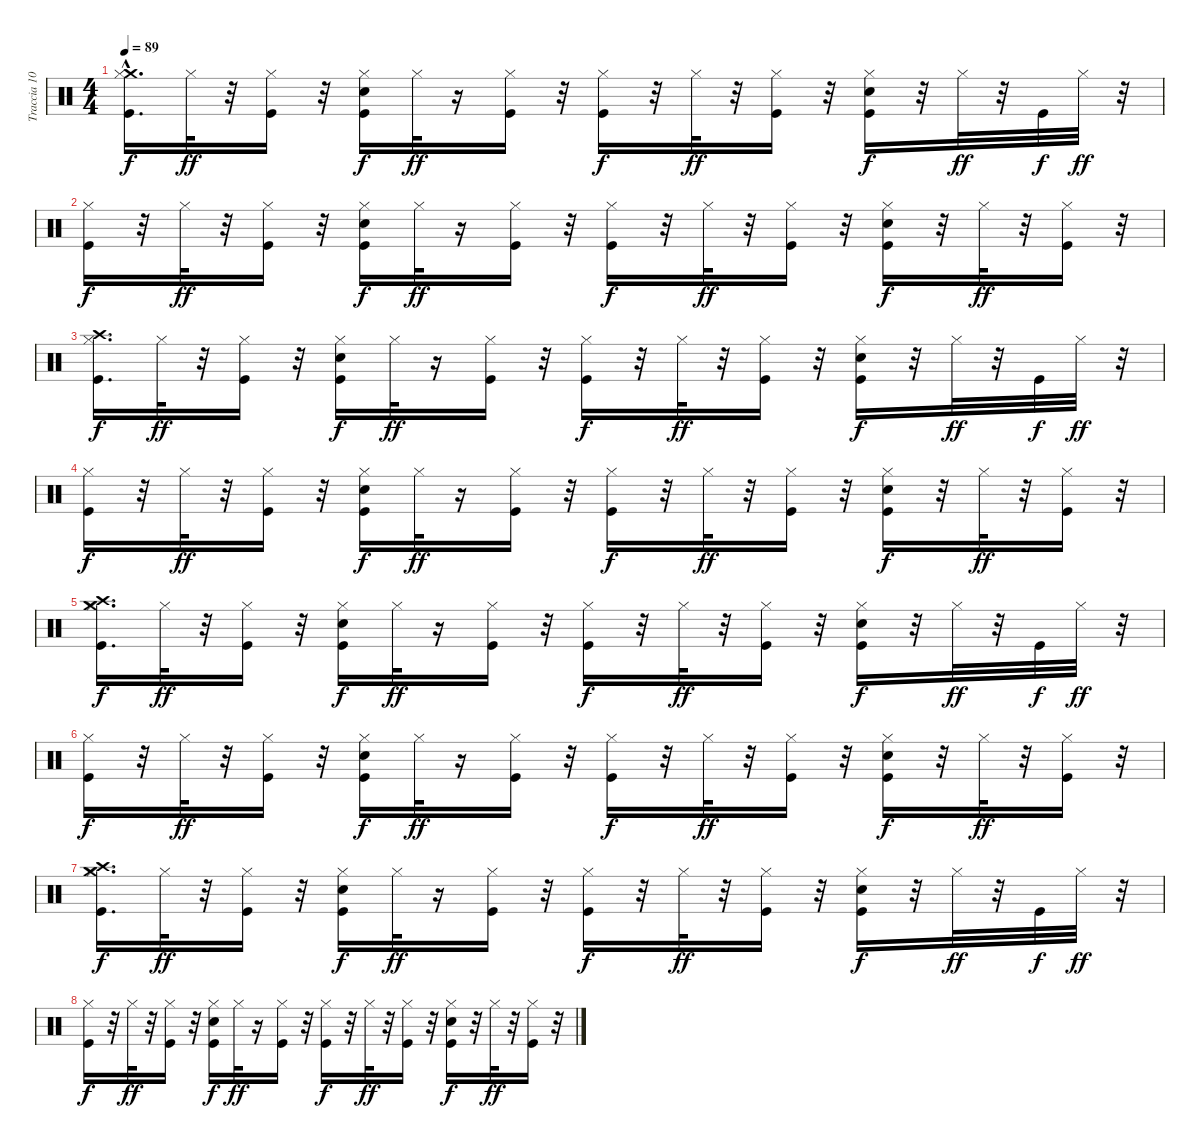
\track ("Traccia 10" "Traccia 10") {instrument percussion}
\staff {score}
\articulation defaults
\ts (4 4)
\tempo 89
\clef neutral
\ks c
("Kick (hit)" "Crash medium (hit)"{hac} "Hi-Hat (closed)").16{d dy f} "Hi-Hat (closed)".32{dy ff} r.32 ("Kick (hit)" "Hi-Hat (closed)").16 r.32 ("Kick (hit)" "Electric Snare (hit)" "Hi-Hat (closed)").16{dy f} "Hi-Hat (closed)".32{dy ff} r.16 ("Kick (hit)" "Hi-Hat (closed)").16 r.32 ("Kick (hit)" "Hi-Hat (closed)").16{dy f} r.32 "Hi-Hat (closed)".32{dy ff} r.32 ("Kick (hit)" "Hi-Hat (closed)").16 r.32 ("Kick (hit)" "Electric Snare (hit)" "Hi-Hat (closed)").16{dy f} r.32 "Hi-Hat (closed)".32{dy ff} r.32 "Kick (hit)".32{dy f} "Hi-Hat (closed)".32{dy ff} r.32 |
("Kick (hit)" "Hi-Hat (closed)").16{dy f} r.32 "Hi-Hat (closed)".32{dy ff} r.32 ("Kick (hit)" "Hi-Hat (closed)").16 r.32 ("Kick (hit)" "Electric Snare (hit)" "Hi-Hat (closed)").16{dy f} "Hi-Hat (closed)".32{dy ff} r.16 ("Kick (hit)" "Hi-Hat (closed)").16 r.32 ("Kick (hit)" "Hi-Hat (closed)").16{dy f} r.32 "Hi-Hat (closed)".32{dy ff} r.32 ("Kick (hit)" "Hi-Hat (closed)").16 r.32 ("Kick (hit)" "Electric Snare (hit)" "Hi-Hat (closed)").16{dy f} r.32 "Hi-Hat (closed)".32{dy ff} r.32 ("Kick (hit)" "Hi-Hat (closed)").16 r.32 |
("Crash high (hit)" "Kick (hit)" "Hi-Hat (closed)").16{d dy f} "Hi-Hat (closed)".32{dy ff} r.32 ("Kick (hit)" "Hi-Hat (closed)").16 r.32 ("Kick (hit)" "Electric Snare (hit)" "Hi-Hat (closed)").16{dy f} "Hi-Hat (closed)".32{dy ff} r.16 ("Kick (hit)" "Hi-Hat (closed)").16 r.32 ("Kick (hit)" "Hi-Hat (closed)").16{dy f} r.32 "Hi-Hat (closed)".32{dy ff} r.32 ("Kick (hit)" "Hi-Hat (closed)").16 r.32 ("Kick (hit)" "Electric Snare (hit)" "Hi-Hat (closed)").16{dy f} r.32 "Hi-Hat (closed)".32{dy ff} r.32 "Kick (hit)".32{dy f} "Hi-Hat (closed)".32{dy ff} r.32 |
("Kick (hit)" "Hi-Hat (closed)").16{dy f} r.32 "Hi-Hat (closed)".32{dy ff} r.32 ("Kick (hit)" "Hi-Hat (closed)").16 r.32 ("Kick (hit)" "Electric Snare (hit)" "Hi-Hat (closed)").16{dy f} "Hi-Hat (closed)".32{dy ff} r.16 ("Kick (hit)" "Hi-Hat (closed)").16 r.32 ("Kick (hit)" "Hi-Hat (closed)").16{dy f} r.32 "Hi-Hat (closed)".32{dy ff} r.32 ("Kick (hit)" "Hi-Hat (closed)").16 r.32 ("Kick (hit)" "Electric Snare (hit)" "Hi-Hat (closed)").16{dy f} r.32 "Hi-Hat (closed)".32{dy ff} r.32 ("Kick (hit)" "Hi-Hat (closed)").16 r.32 |
("Crash medium (hit)" "Crash high (hit)" "Kick (hit)" "Hi-Hat (closed)").16{d dy f} "Hi-Hat (closed)".32{dy ff} r.32 ("Kick (hit)" "Hi-Hat (closed)").16 r.32 ("Kick (hit)" "Electric Snare (hit)" "Hi-Hat (closed)").16{dy f} "Hi-Hat (closed)".32{dy ff} r.16 ("Kick (hit)" "Hi-Hat (closed)").16 r.32 ("Kick (hit)" "Hi-Hat (closed)").16{dy f} r.32 "Hi-Hat (closed)".32{dy ff} r.32 ("Kick (hit)" "Hi-Hat (closed)").16 r.32 ("Kick (hit)" "Electric Snare (hit)" "Hi-Hat (closed)").16{dy f} r.32 "Hi-Hat (closed)".32{dy ff} r.32 "Kick (hit)".32{dy f} "Hi-Hat (closed)".32{dy ff} r.32 |
("Kick (hit)" "Hi-Hat (closed)").16{dy f} r.32 "Hi-Hat (closed)".32{dy ff} r.32 ("Kick (hit)" "Hi-Hat (closed)").16 r.32 ("Kick (hit)" "Electric Snare (hit)" "Hi-Hat (closed)").16{dy f} "Hi-Hat (closed)".32{dy ff} r.16 ("Kick (hit)" "Hi-Hat (closed)").16 r.32 ("Kick (hit)" "Hi-Hat (closed)").16{dy f} r.32 "Hi-Hat (closed)".32{dy ff} r.32 ("Kick (hit)" "Hi-Hat (closed)").16 r.32 ("Kick (hit)" "Electric Snare (hit)" "Hi-Hat (closed)").16{dy f} r.32 "Hi-Hat (closed)".32{dy ff} r.32 ("Kick (hit)" "Hi-Hat (closed)").16 r.32 |
("Crash medium (hit)" "Crash high (hit)" "Kick (hit)" "Hi-Hat (closed)").16{d dy f} "Hi-Hat (closed)".32{dy ff} r.32 ("Kick (hit)" "Hi-Hat (closed)").16 r.32 ("Kick (hit)" "Electric Snare (hit)" "Hi-Hat (closed)").16{dy f} "Hi-Hat (closed)".32{dy ff} r.16 ("Kick (hit)" "Hi-Hat (closed)").16 r.32 ("Kick (hit)" "Hi-Hat (closed)").16{dy f} r.32 "Hi-Hat (closed)".32{dy ff} r.32 ("Kick (hit)" "Hi-Hat (closed)").16 r.32 ("Kick (hit)" "Electric Snare (hit)" "Hi-Hat (closed)").16{dy f} r.32 "Hi-Hat (closed)".32{dy ff} r.32 "Kick (hit)".32{dy f} "Hi-Hat (closed)".32{dy ff} r.32 |
("Kick (hit)" "Hi-Hat (closed)").16{dy f} r.32 "Hi-Hat (closed)".32{dy ff} r.32 ("Kick (hit)" "Hi-Hat (closed)").16 r.32 ("Kick (hit)" "Electric Snare (hit)" "Hi-Hat (closed)").16{dy f} "Hi-Hat (closed)".32{dy ff} r.16 ("Kick (hit)" "Hi-Hat (closed)").16 r.32 ("Kick (hit)" "Hi-Hat (closed)").16{dy f} r.32 "Hi-Hat (closed)".32{dy ff} r.32 ("Kick (hit)" "Hi-Hat (closed)").16 r.32 ("Kick (hit)" "Electric Snare (hit)" "Hi-Hat (closed)").16{dy f} r.32 "Hi-Hat (closed)".32{dy ff} r.32 ("Kick (hit)" "Hi-Hat (closed)").16 r.32
